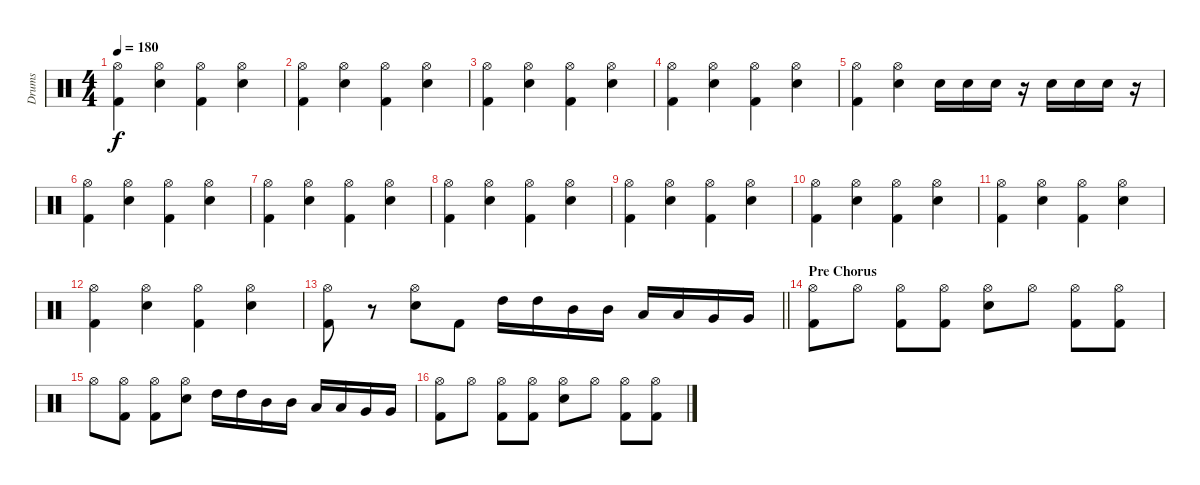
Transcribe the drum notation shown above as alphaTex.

\track ("Drums" "Drums") {instrument percussion}
\staff {score}
\articulation defaults
\ts (4 4)
\tempo 180
\clef neutral
\ks c
("Hi-Hat (open)" "Kick (hit) 2").4{dy f} ("Hi-Hat (open)" "Electric Snare (hit)").4 ("Hi-Hat (open)" "Kick (hit) 2").4 ("Hi-Hat (open)" "Electric Snare (hit)").4 |
("Hi-Hat (open)" "Kick (hit) 2").4 ("Hi-Hat (open)" "Electric Snare (hit)").4 ("Hi-Hat (open)" "Kick (hit) 2").4 ("Hi-Hat (open)" "Electric Snare (hit)").4 |
("Hi-Hat (open)" "Kick (hit) 2").4 ("Hi-Hat (open)" "Electric Snare (hit)").4 ("Hi-Hat (open)" "Kick (hit) 2").4 ("Hi-Hat (open)" "Electric Snare (hit)").4 |
("Hi-Hat (open)" "Kick (hit) 2").4 ("Hi-Hat (open)" "Electric Snare (hit)").4 ("Hi-Hat (open)" "Kick (hit) 2").4 ("Hi-Hat (open)" "Electric Snare (hit)").4 |
("Hi-Hat (open)" "Kick (hit) 2").4 ("Hi-Hat (open)" "Electric Snare (hit)").4 "Electric Snare (hit)".16 "Electric Snare (hit)".16 "Electric Snare (hit)".16 r.16 "Electric Snare (hit)".16 "Electric Snare (hit)".16 "Electric Snare (hit)".16 r.16 |
("Hi-Hat (open)" "Kick (hit) 2").4 ("Hi-Hat (open)" "Electric Snare (hit)").4 ("Hi-Hat (open)" "Kick (hit) 2").4 ("Hi-Hat (open)" "Electric Snare (hit)").4 |
("Hi-Hat (open)" "Kick (hit) 2").4 ("Hi-Hat (open)" "Electric Snare (hit)").4 ("Hi-Hat (open)" "Kick (hit) 2").4 ("Hi-Hat (open)" "Electric Snare (hit)").4 |
("Hi-Hat (open)" "Kick (hit) 2").4 ("Hi-Hat (open)" "Electric Snare (hit)").4 ("Hi-Hat (open)" "Kick (hit) 2").4 ("Hi-Hat (open)" "Electric Snare (hit)").4 |
("Hi-Hat (open)" "Kick (hit) 2").4 ("Hi-Hat (open)" "Electric Snare (hit)").4 ("Hi-Hat (open)" "Kick (hit) 2").4 ("Hi-Hat (open)" "Electric Snare (hit)").4 |
("Hi-Hat (open)" "Kick (hit) 2").4 ("Hi-Hat (open)" "Electric Snare (hit)").4 ("Hi-Hat (open)" "Kick (hit) 2").4 ("Hi-Hat (open)" "Electric Snare (hit)").4 |
("Hi-Hat (open)" "Kick (hit) 2").4 ("Hi-Hat (open)" "Electric Snare (hit)").4 ("Hi-Hat (open)" "Kick (hit) 2").4 ("Hi-Hat (open)" "Electric Snare (hit)").4 |
("Hi-Hat (open)" "Kick (hit) 2").4 ("Hi-Hat (open)" "Electric Snare (hit)").4 ("Hi-Hat (open)" "Kick (hit) 2").4 ("Hi-Hat (open)" "Electric Snare (hit)").4 |
\barLineRight lightlight
("Hi-Hat (open)" "Kick (hit) 2").8 r.8 ("Hi-Hat (open)" "Electric Snare (hit)").8 "Kick (hit) 2".8 "High Tom (hit)".16 "High Tom (hit)".16 "Mid Tom (hit)".16 "Mid Tom (hit)".16 "Low Tom (hit)".16 "Low Tom (hit)".16 "Very Low Tom (hit)".16 "Very Low Tom (hit)".16 |
\section ("" "Pre Chorus")
("Hi-Hat (open)" "Kick (hit) 2").8 "Hi-Hat (open)".8 ("Hi-Hat (open)" "Kick (hit) 2").8 ("Hi-Hat (open)" "Kick (hit) 2").8 ("Hi-Hat (open)" "Electric Snare (hit)").8 "Hi-Hat (open)".8 ("Hi-Hat (open)" "Kick (hit) 2").8 ("Hi-Hat (open)" "Kick (hit) 2").8 |
"Hi-Hat (open)".8 ("Hi-Hat (open)" "Kick (hit) 2").8 ("Hi-Hat (open)" "Kick (hit) 2").8 ("Hi-Hat (open)" "Electric Snare (hit)").8 "High Tom (hit)".16 "High Tom (hit)".16 "Mid Tom (hit)".16 "Mid Tom (hit)".16 "Low Tom (hit)".16 "Low Tom (hit)".16 "Very Low Tom (hit)".16 "Very Low Tom (hit)".16 |
("Hi-Hat (open)" "Kick (hit) 2").8 "Hi-Hat (open)".8 ("Hi-Hat (open)" "Kick (hit) 2").8 ("Hi-Hat (open)" "Kick (hit) 2").8 ("Hi-Hat (open)" "Electric Snare (hit)").8 "Hi-Hat (open)".8 ("Hi-Hat (open)" "Kick (hit) 2").8 ("Hi-Hat (open)" "Kick (hit) 2").8
